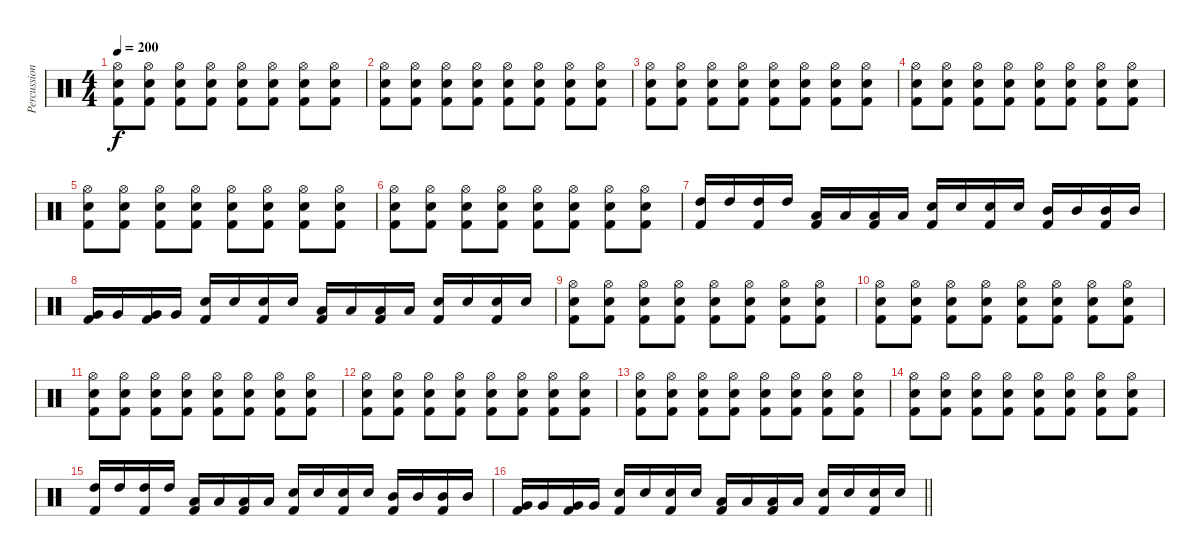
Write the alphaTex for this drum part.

\track ("Percussion" "Percussion") {instrument percussion}
\staff {score}
\articulation defaults
\ts (4 4)
\tempo 200
\clef neutral
\ks c
("Hi-Hat (open)" "Electric Snare (hit)" "Kick (hit) 2").8{dy f} ("Hi-Hat (open)" "Electric Snare (hit)" "Kick (hit) 2").8 ("Hi-Hat (open)" "Electric Snare (hit)" "Kick (hit) 2").8 ("Hi-Hat (open)" "Electric Snare (hit)" "Kick (hit) 2").8 ("Hi-Hat (open)" "Electric Snare (hit)" "Kick (hit) 2").8 ("Hi-Hat (open)" "Electric Snare (hit)" "Kick (hit) 2").8 ("Hi-Hat (open)" "Electric Snare (hit)" "Kick (hit) 2").8 ("Hi-Hat (open)" "Electric Snare (hit)" "Kick (hit) 2").8 |
("Hi-Hat (open)" "Electric Snare (hit)" "Kick (hit) 2").8 ("Hi-Hat (open)" "Electric Snare (hit)" "Kick (hit) 2").8 ("Hi-Hat (open)" "Electric Snare (hit)" "Kick (hit) 2").8 ("Hi-Hat (open)" "Electric Snare (hit)" "Kick (hit) 2").8 ("Hi-Hat (open)" "Electric Snare (hit)" "Kick (hit) 2").8 ("Hi-Hat (open)" "Electric Snare (hit)" "Kick (hit) 2").8 ("Hi-Hat (open)" "Electric Snare (hit)" "Kick (hit) 2").8 ("Hi-Hat (open)" "Electric Snare (hit)" "Kick (hit) 2").8 |
("Hi-Hat (open)" "Electric Snare (hit)" "Kick (hit) 2").8 ("Hi-Hat (open)" "Electric Snare (hit)" "Kick (hit) 2").8 ("Hi-Hat (open)" "Electric Snare (hit)" "Kick (hit) 2").8 ("Hi-Hat (open)" "Electric Snare (hit)" "Kick (hit) 2").8 ("Hi-Hat (open)" "Electric Snare (hit)" "Kick (hit) 2").8 ("Hi-Hat (open)" "Electric Snare (hit)" "Kick (hit) 2").8 ("Hi-Hat (open)" "Electric Snare (hit)" "Kick (hit) 2").8 ("Hi-Hat (open)" "Electric Snare (hit)" "Kick (hit) 2").8 |
("Hi-Hat (open)" "Electric Snare (hit)" "Kick (hit) 2").8 ("Hi-Hat (open)" "Electric Snare (hit)" "Kick (hit) 2").8 ("Hi-Hat (open)" "Electric Snare (hit)" "Kick (hit) 2").8 ("Hi-Hat (open)" "Electric Snare (hit)" "Kick (hit) 2").8 ("Hi-Hat (open)" "Electric Snare (hit)" "Kick (hit) 2").8 ("Hi-Hat (open)" "Electric Snare (hit)" "Kick (hit) 2").8 ("Hi-Hat (open)" "Electric Snare (hit)" "Kick (hit) 2").8 ("Hi-Hat (open)" "Electric Snare (hit)" "Kick (hit) 2").8 |
("Hi-Hat (open)" "Electric Snare (hit)" "Kick (hit) 2").8 ("Hi-Hat (open)" "Electric Snare (hit)" "Kick (hit) 2").8 ("Hi-Hat (open)" "Electric Snare (hit)" "Kick (hit) 2").8 ("Hi-Hat (open)" "Electric Snare (hit)" "Kick (hit) 2").8 ("Hi-Hat (open)" "Electric Snare (hit)" "Kick (hit) 2").8 ("Hi-Hat (open)" "Electric Snare (hit)" "Kick (hit) 2").8 ("Hi-Hat (open)" "Electric Snare (hit)" "Kick (hit) 2").8 ("Hi-Hat (open)" "Electric Snare (hit)" "Kick (hit) 2").8 |
("Hi-Hat (open)" "Electric Snare (hit)" "Kick (hit) 2").8 ("Hi-Hat (open)" "Electric Snare (hit)" "Kick (hit) 2").8 ("Hi-Hat (open)" "Electric Snare (hit)" "Kick (hit) 2").8 ("Hi-Hat (open)" "Electric Snare (hit)" "Kick (hit) 2").8 ("Hi-Hat (open)" "Electric Snare (hit)" "Kick (hit) 2").8 ("Hi-Hat (open)" "Electric Snare (hit)" "Kick (hit) 2").8 ("Hi-Hat (open)" "Electric Snare (hit)" "Kick (hit) 2").8 ("Hi-Hat (open)" "Electric Snare (hit)" "Kick (hit) 2").8 |
("High Tom (hit)" "Kick (hit) 2").16 "High Tom (hit)".16 ("High Tom (hit)" "Kick (hit) 2").16 "High Tom (hit)".16 ("Low Tom (hit)" "Kick (hit) 2").16 "Low Tom (hit)".16 ("Low Tom (hit)" "Kick (hit) 2").16 "Low Tom (hit)".16 ("Electric Snare (hit)" "Kick (hit) 2").16 "Electric Snare (hit)".16 ("Electric Snare (hit)" "Kick (hit) 2").16 "Electric Snare (hit)".16 ("Mid Tom (hit)" "Kick (hit) 2").16 "Mid Tom (hit)".16 ("Mid Tom (hit)" "Kick (hit) 2").16 "Mid Tom (hit)".16 |
("Very Low Tom (hit)" "Kick (hit) 2").16 "Very Low Tom (hit)".16 ("Very Low Tom (hit)" "Kick (hit) 2").16 "Very Low Tom (hit)".16 ("Electric Snare (hit)" "Kick (hit) 2").16 "Electric Snare (hit)".16 ("Electric Snare (hit)" "Kick (hit) 2").16 "Electric Snare (hit)".16 ("Low Tom (hit)" "Kick (hit) 2").16 "Low Tom (hit)".16 ("Low Tom (hit)" "Kick (hit) 2").16 "Low Tom (hit)".16 ("Electric Snare (hit)" "Kick (hit) 2").16 "Electric Snare (hit)".16 ("Electric Snare (hit)" "Kick (hit) 2").16 "Electric Snare (hit)".16 |
("Hi-Hat (open)" "Electric Snare (hit)" "Kick (hit) 2").8 ("Hi-Hat (open)" "Electric Snare (hit)" "Kick (hit) 2").8 ("Hi-Hat (open)" "Electric Snare (hit)" "Kick (hit) 2").8 ("Hi-Hat (open)" "Electric Snare (hit)" "Kick (hit) 2").8 ("Hi-Hat (open)" "Electric Snare (hit)" "Kick (hit) 2").8 ("Hi-Hat (open)" "Electric Snare (hit)" "Kick (hit) 2").8 ("Hi-Hat (open)" "Electric Snare (hit)" "Kick (hit) 2").8 ("Hi-Hat (open)" "Electric Snare (hit)" "Kick (hit) 2").8 |
("Hi-Hat (open)" "Electric Snare (hit)" "Kick (hit) 2").8 ("Hi-Hat (open)" "Electric Snare (hit)" "Kick (hit) 2").8 ("Hi-Hat (open)" "Electric Snare (hit)" "Kick (hit) 2").8 ("Hi-Hat (open)" "Electric Snare (hit)" "Kick (hit) 2").8 ("Hi-Hat (open)" "Electric Snare (hit)" "Kick (hit) 2").8 ("Hi-Hat (open)" "Electric Snare (hit)" "Kick (hit) 2").8 ("Hi-Hat (open)" "Electric Snare (hit)" "Kick (hit) 2").8 ("Hi-Hat (open)" "Electric Snare (hit)" "Kick (hit) 2").8 |
("Hi-Hat (open)" "Electric Snare (hit)" "Kick (hit) 2").8 ("Hi-Hat (open)" "Electric Snare (hit)" "Kick (hit) 2").8 ("Hi-Hat (open)" "Electric Snare (hit)" "Kick (hit) 2").8 ("Hi-Hat (open)" "Electric Snare (hit)" "Kick (hit) 2").8 ("Hi-Hat (open)" "Electric Snare (hit)" "Kick (hit) 2").8 ("Hi-Hat (open)" "Electric Snare (hit)" "Kick (hit) 2").8 ("Hi-Hat (open)" "Electric Snare (hit)" "Kick (hit) 2").8 ("Hi-Hat (open)" "Electric Snare (hit)" "Kick (hit) 2").8 |
("Hi-Hat (open)" "Electric Snare (hit)" "Kick (hit) 2").8 ("Hi-Hat (open)" "Electric Snare (hit)" "Kick (hit) 2").8 ("Hi-Hat (open)" "Electric Snare (hit)" "Kick (hit) 2").8 ("Hi-Hat (open)" "Electric Snare (hit)" "Kick (hit) 2").8 ("Hi-Hat (open)" "Electric Snare (hit)" "Kick (hit) 2").8 ("Hi-Hat (open)" "Electric Snare (hit)" "Kick (hit) 2").8 ("Hi-Hat (open)" "Electric Snare (hit)" "Kick (hit) 2").8 ("Hi-Hat (open)" "Electric Snare (hit)" "Kick (hit) 2").8 |
("Hi-Hat (open)" "Electric Snare (hit)" "Kick (hit) 2").8 ("Hi-Hat (open)" "Electric Snare (hit)" "Kick (hit) 2").8 ("Hi-Hat (open)" "Electric Snare (hit)" "Kick (hit) 2").8 ("Hi-Hat (open)" "Electric Snare (hit)" "Kick (hit) 2").8 ("Hi-Hat (open)" "Electric Snare (hit)" "Kick (hit) 2").8 ("Hi-Hat (open)" "Electric Snare (hit)" "Kick (hit) 2").8 ("Hi-Hat (open)" "Electric Snare (hit)" "Kick (hit) 2").8 ("Hi-Hat (open)" "Electric Snare (hit)" "Kick (hit) 2").8 |
("Hi-Hat (open)" "Electric Snare (hit)" "Kick (hit) 2").8 ("Hi-Hat (open)" "Electric Snare (hit)" "Kick (hit) 2").8 ("Hi-Hat (open)" "Electric Snare (hit)" "Kick (hit) 2").8 ("Hi-Hat (open)" "Electric Snare (hit)" "Kick (hit) 2").8 ("Hi-Hat (open)" "Electric Snare (hit)" "Kick (hit) 2").8 ("Hi-Hat (open)" "Electric Snare (hit)" "Kick (hit) 2").8 ("Hi-Hat (open)" "Electric Snare (hit)" "Kick (hit) 2").8 ("Hi-Hat (open)" "Electric Snare (hit)" "Kick (hit) 2").8 |
("High Tom (hit)" "Kick (hit) 2").16 "High Tom (hit)".16 ("High Tom (hit)" "Kick (hit) 2").16 "High Tom (hit)".16 ("Low Tom (hit)" "Kick (hit) 2").16 "Low Tom (hit)".16 ("Low Tom (hit)" "Kick (hit) 2").16 "Low Tom (hit)".16 ("Electric Snare (hit)" "Kick (hit) 2").16 "Electric Snare (hit)".16 ("Electric Snare (hit)" "Kick (hit) 2").16 "Electric Snare (hit)".16 ("Mid Tom (hit)" "Kick (hit) 2").16 "Mid Tom (hit)".16 ("Mid Tom (hit)" "Kick (hit) 2").16 "Mid Tom (hit)".16 |
\barLineRight lightlight
("Very Low Tom (hit)" "Kick (hit) 2").16 "Very Low Tom (hit)".16 ("Very Low Tom (hit)" "Kick (hit) 2").16 "Very Low Tom (hit)".16 ("Electric Snare (hit)" "Kick (hit) 2").16 "Electric Snare (hit)".16 ("Electric Snare (hit)" "Kick (hit) 2").16 "Electric Snare (hit)".16 ("Low Tom (hit)" "Kick (hit) 2").16 "Low Tom (hit)".16 ("Low Tom (hit)" "Kick (hit) 2").16 "Low Tom (hit)".16 ("Electric Snare (hit)" "Kick (hit) 2").16 "Electric Snare (hit)".16 ("Electric Snare (hit)" "Kick (hit) 2").16 "Electric Snare (hit)".16
